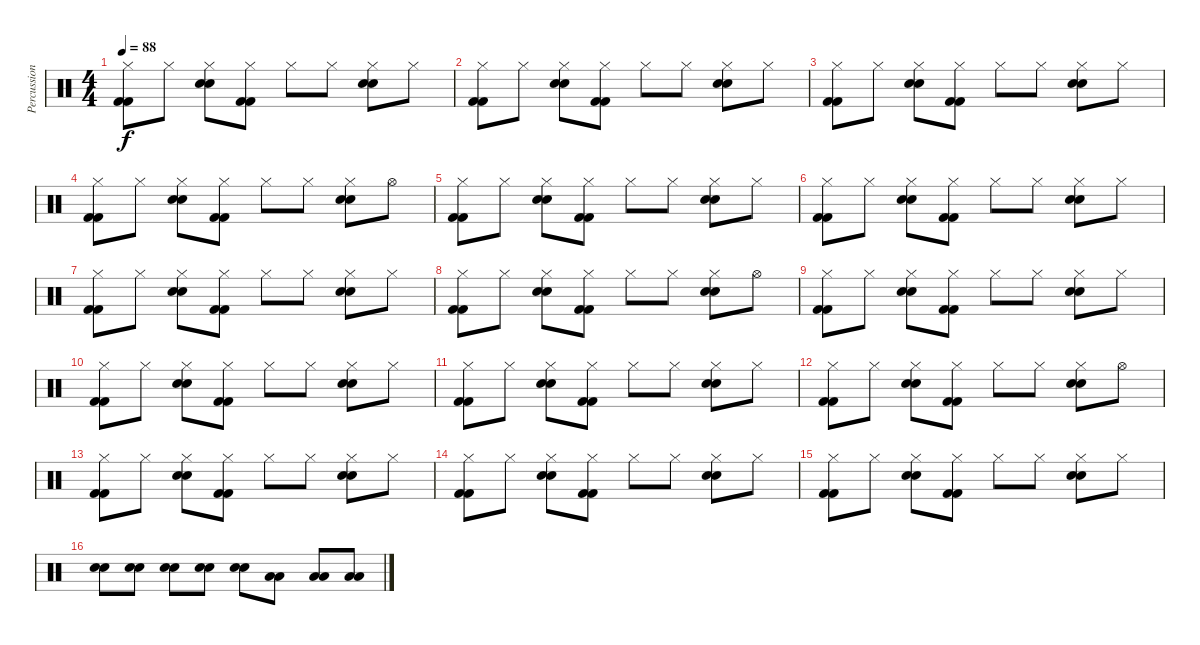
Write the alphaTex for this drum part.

\track ("Percussion" "Percussion") {instrument percussion}
\staff {score}
\articulation defaults
\ts (4 4)
\tempo 88
\clef neutral
\ks c
("Kick (hit) 2" "Kick (hit) 2" "Hi-Hat (closed)").8{dy f} "Hi-Hat (closed)".8 ("Snare (hit) 2" "Snare (hit) 2" "Hi-Hat (closed)").8 ("Kick (hit) 2" "Kick (hit) 2" "Hi-Hat (closed)").8 "Hi-Hat (closed)".8 "Hi-Hat (closed)".8 ("Snare (hit) 2" "Snare (hit) 2" "Hi-Hat (closed)").8 "Hi-Hat (closed)".8 |
("Kick (hit) 2" "Kick (hit) 2" "Hi-Hat (closed)").8 "Hi-Hat (closed)".8 ("Snare (hit) 2" "Snare (hit) 2" "Hi-Hat (closed)").8 ("Kick (hit) 2" "Kick (hit) 2" "Hi-Hat (closed)").8 "Hi-Hat (closed)".8 "Hi-Hat (closed)".8 ("Snare (hit) 2" "Snare (hit) 2" "Hi-Hat (closed)").8 "Hi-Hat (closed)".8 |
("Kick (hit) 2" "Kick (hit) 2" "Hi-Hat (closed)").8 "Hi-Hat (closed)".8 ("Snare (hit) 2" "Snare (hit) 2" "Hi-Hat (closed)").8 ("Kick (hit) 2" "Kick (hit) 2" "Hi-Hat (closed)").8 "Hi-Hat (closed)".8 "Hi-Hat (closed)".8 ("Snare (hit) 2" "Snare (hit) 2" "Hi-Hat (closed)").8 "Hi-Hat (closed)".8 |
("Kick (hit) 2" "Kick (hit) 2" "Hi-Hat (closed)").8 "Hi-Hat (closed)".8 ("Snare (hit) 2" "Snare (hit) 2" "Hi-Hat (closed)").8 ("Kick (hit) 2" "Kick (hit) 2" "Hi-Hat (closed)").8 "Hi-Hat (closed)".8 "Hi-Hat (closed)".8 ("Snare (hit) 2" "Snare (hit) 2" "Hi-Hat (closed)").8 "Hi-Hat (open)".8 |
("Kick (hit) 2" "Kick (hit) 2" "Hi-Hat (closed)").8 "Hi-Hat (closed)".8 ("Snare (hit) 2" "Snare (hit) 2" "Hi-Hat (closed)").8 ("Kick (hit) 2" "Kick (hit) 2" "Hi-Hat (closed)").8 "Hi-Hat (closed)".8 "Hi-Hat (closed)".8 ("Snare (hit) 2" "Snare (hit) 2" "Hi-Hat (closed)").8 "Hi-Hat (closed)".8 |
("Kick (hit) 2" "Kick (hit) 2" "Hi-Hat (closed)").8 "Hi-Hat (closed)".8 ("Snare (hit) 2" "Snare (hit) 2" "Hi-Hat (closed)").8 ("Kick (hit) 2" "Kick (hit) 2" "Hi-Hat (closed)").8 "Hi-Hat (closed)".8 "Hi-Hat (closed)".8 ("Snare (hit) 2" "Snare (hit) 2" "Hi-Hat (closed)").8 "Hi-Hat (closed)".8 |
("Kick (hit) 2" "Kick (hit) 2" "Hi-Hat (closed)").8 "Hi-Hat (closed)".8 ("Snare (hit) 2" "Snare (hit) 2" "Hi-Hat (closed)").8 ("Kick (hit) 2" "Kick (hit) 2" "Hi-Hat (closed)").8 "Hi-Hat (closed)".8 "Hi-Hat (closed)".8 ("Snare (hit) 2" "Snare (hit) 2" "Hi-Hat (closed)").8 "Hi-Hat (closed)".8 |
("Kick (hit) 2" "Kick (hit) 2" "Hi-Hat (closed)").8 "Hi-Hat (closed)".8 ("Snare (hit) 2" "Snare (hit) 2" "Hi-Hat (closed)").8 ("Kick (hit) 2" "Kick (hit) 2" "Hi-Hat (closed)").8 "Hi-Hat (closed)".8 "Hi-Hat (closed)".8 ("Snare (hit) 2" "Snare (hit) 2" "Hi-Hat (closed)").8 "Hi-Hat (open)".8 |
("Kick (hit) 2" "Kick (hit) 2" "Hi-Hat (closed)").8 "Hi-Hat (closed)".8 ("Snare (hit) 2" "Snare (hit) 2" "Hi-Hat (closed)").8 ("Kick (hit) 2" "Kick (hit) 2" "Hi-Hat (closed)").8 "Hi-Hat (closed)".8 "Hi-Hat (closed)".8 ("Snare (hit) 2" "Snare (hit) 2" "Hi-Hat (closed)").8 "Hi-Hat (closed)".8 |
("Kick (hit) 2" "Kick (hit) 2" "Hi-Hat (closed)").8 "Hi-Hat (closed)".8 ("Snare (hit) 2" "Snare (hit) 2" "Hi-Hat (closed)").8 ("Kick (hit) 2" "Kick (hit) 2" "Hi-Hat (closed)").8 "Hi-Hat (closed)".8 "Hi-Hat (closed)".8 ("Snare (hit) 2" "Snare (hit) 2" "Hi-Hat (closed)").8 "Hi-Hat (closed)".8 |
("Kick (hit) 2" "Kick (hit) 2" "Hi-Hat (closed)").8 "Hi-Hat (closed)".8 ("Snare (hit) 2" "Snare (hit) 2" "Hi-Hat (closed)").8 ("Kick (hit) 2" "Kick (hit) 2" "Hi-Hat (closed)").8 "Hi-Hat (closed)".8 "Hi-Hat (closed)".8 ("Snare (hit) 2" "Snare (hit) 2" "Hi-Hat (closed)").8 "Hi-Hat (closed)".8 |
("Kick (hit) 2" "Kick (hit) 2" "Hi-Hat (closed)").8 "Hi-Hat (closed)".8 ("Snare (hit) 2" "Snare (hit) 2" "Hi-Hat (closed)").8 ("Kick (hit) 2" "Kick (hit) 2" "Hi-Hat (closed)").8 "Hi-Hat (closed)".8 "Hi-Hat (closed)".8 ("Snare (hit) 2" "Snare (hit) 2" "Hi-Hat (closed)").8 "Hi-Hat (open)".8 |
("Kick (hit) 2" "Kick (hit) 2" "Hi-Hat (closed)").8 "Hi-Hat (closed)".8 ("Snare (hit) 2" "Snare (hit) 2" "Hi-Hat (closed)").8 ("Kick (hit) 2" "Kick (hit) 2" "Hi-Hat (closed)").8 "Hi-Hat (closed)".8 "Hi-Hat (closed)".8 ("Snare (hit) 2" "Snare (hit) 2" "Hi-Hat (closed)").8 "Hi-Hat (closed)".8 |
("Kick (hit) 2" "Kick (hit) 2" "Hi-Hat (closed)").8 "Hi-Hat (closed)".8 ("Snare (hit) 2" "Snare (hit) 2" "Hi-Hat (closed)").8 ("Kick (hit) 2" "Kick (hit) 2" "Hi-Hat (closed)").8 "Hi-Hat (closed)".8 "Hi-Hat (closed)".8 ("Snare (hit) 2" "Snare (hit) 2" "Hi-Hat (closed)").8 "Hi-Hat (closed)".8 |
("Kick (hit) 2" "Kick (hit) 2" "Hi-Hat (closed)").8 "Hi-Hat (closed)".8 ("Snare (hit) 2" "Snare (hit) 2" "Hi-Hat (closed)").8 ("Kick (hit) 2" "Kick (hit) 2" "Hi-Hat (closed)").8 "Hi-Hat (closed)".8 "Hi-Hat (closed)".8 ("Snare (hit) 2" "Snare (hit) 2" "Hi-Hat (closed)").8 "Hi-Hat (closed)".8 |
("Snare (hit) 2" "Snare (hit) 2").8 ("Snare (hit) 2" "Snare (hit) 2").8 ("Snare (hit) 2" "Snare (hit) 2").8 ("Snare (hit) 2" "Snare (hit) 2").8 ("Snare (hit) 2" "Snare (hit) 2").8 ("Low Tom (hit)" "Low Tom (hit)").8 ("Low Tom (hit)" "Low Tom (hit)").8 ("Low Tom (hit)" "Low Tom (hit)").8
